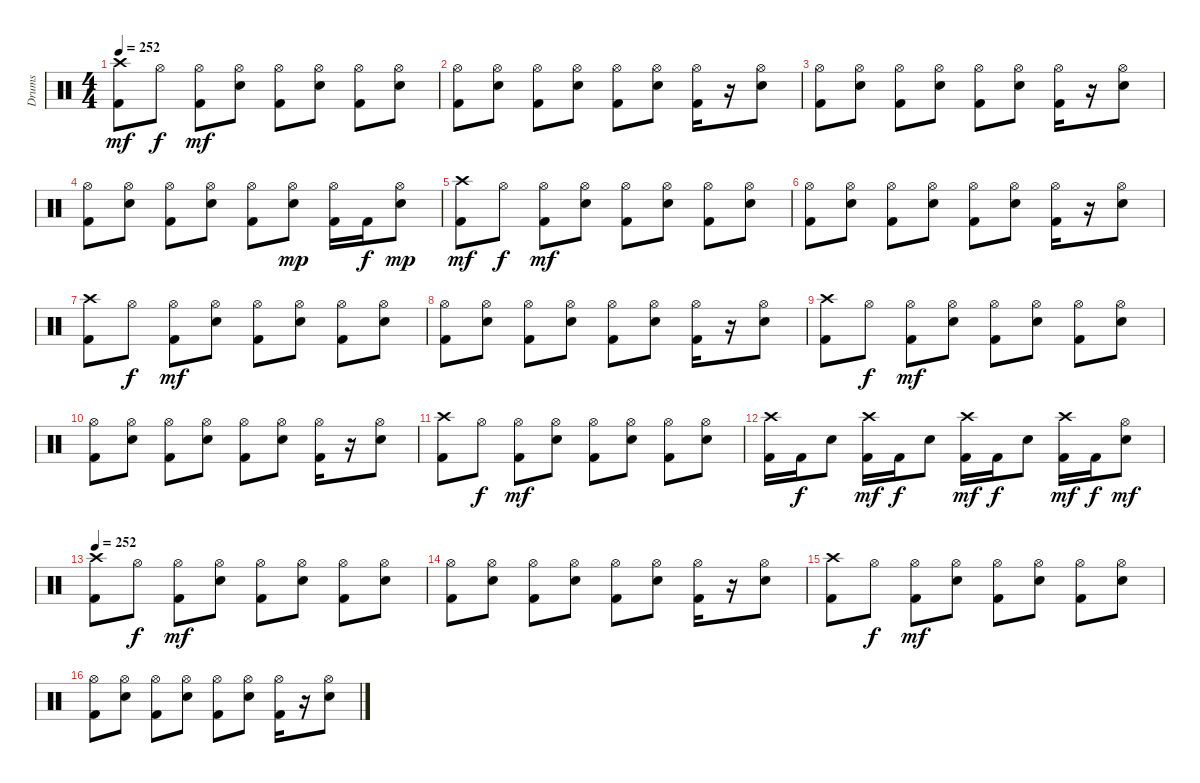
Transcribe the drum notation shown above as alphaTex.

\track ("Drums" "Drums") {instrument percussion}
\staff {score}
\articulation defaults
\ts (4 4)
\tempo 252
\clef neutral
\ks c
("Crash high (hit)" "Kick (hit) 2").8{dy mf} "Hi-Hat (open)".8{dy f} ("Hi-Hat (open)" "Kick (hit) 2").8{dy mf} ("Hi-Hat (open)" "Snare (hit) 2").8 ("Hi-Hat (open)" "Kick (hit) 2").8 ("Hi-Hat (open)" "Snare (hit) 2").8 ("Hi-Hat (open)" "Kick (hit) 2").8 ("Hi-Hat (open)" "Snare (hit) 2").8 |
("Hi-Hat (open)" "Kick (hit) 2").8 ("Hi-Hat (open)" "Snare (hit) 2").8 ("Hi-Hat (open)" "Kick (hit) 2").8 ("Hi-Hat (open)" "Snare (hit) 2").8 ("Hi-Hat (open)" "Kick (hit) 2").8 ("Hi-Hat (open)" "Snare (hit) 2").8 ("Hi-Hat (open)" "Kick (hit) 2").16 r.16 ("Hi-Hat (open)" "Snare (hit) 2").8 |
("Hi-Hat (open)" "Kick (hit) 2").8 ("Hi-Hat (open)" "Snare (hit) 2").8 ("Hi-Hat (open)" "Kick (hit) 2").8 ("Hi-Hat (open)" "Snare (hit) 2").8 ("Hi-Hat (open)" "Kick (hit) 2").8 ("Hi-Hat (open)" "Snare (hit) 2").8 ("Hi-Hat (open)" "Kick (hit) 2").16 r.16 ("Hi-Hat (open)" "Snare (hit) 2").8 |
("Hi-Hat (open)" "Kick (hit) 2").8 ("Hi-Hat (open)" "Snare (hit) 2").8 ("Hi-Hat (open)" "Kick (hit) 2").8 ("Hi-Hat (open)" "Snare (hit) 2").8 ("Hi-Hat (open)" "Kick (hit) 2").8 ("Hi-Hat (open)" "Snare (hit) 2").8{dy mp} ("Hi-Hat (open)" "Kick (hit) 2").16 "Kick (hit) 2".16{dy f} ("Hi-Hat (open)" "Snare (hit) 2").8{dy mp} |
("Crash high (hit)" "Kick (hit) 2").8{dy mf} "Hi-Hat (open)".8{dy f} ("Hi-Hat (open)" "Kick (hit) 2").8{dy mf} ("Hi-Hat (open)" "Snare (hit) 2").8 ("Hi-Hat (open)" "Kick (hit) 2").8 ("Hi-Hat (open)" "Snare (hit) 2").8 ("Hi-Hat (open)" "Kick (hit) 2").8 ("Hi-Hat (open)" "Snare (hit) 2").8 |
("Hi-Hat (open)" "Kick (hit) 2").8 ("Hi-Hat (open)" "Snare (hit) 2").8 ("Hi-Hat (open)" "Kick (hit) 2").8 ("Hi-Hat (open)" "Snare (hit) 2").8 ("Hi-Hat (open)" "Kick (hit) 2").8 ("Hi-Hat (open)" "Snare (hit) 2").8 ("Hi-Hat (open)" "Kick (hit) 2").16 r.16 ("Hi-Hat (open)" "Snare (hit) 2").8 |
("Crash high (hit)" "Kick (hit) 2").8 "Hi-Hat (open)".8{dy f} ("Hi-Hat (open)" "Kick (hit) 2").8{dy mf} ("Hi-Hat (open)" "Snare (hit) 2").8 ("Hi-Hat (open)" "Kick (hit) 2").8 ("Hi-Hat (open)" "Snare (hit) 2").8 ("Hi-Hat (open)" "Kick (hit) 2").8 ("Hi-Hat (open)" "Snare (hit) 2").8 |
("Hi-Hat (open)" "Kick (hit) 2").8 ("Hi-Hat (open)" "Snare (hit) 2").8 ("Hi-Hat (open)" "Kick (hit) 2").8 ("Hi-Hat (open)" "Snare (hit) 2").8 ("Hi-Hat (open)" "Kick (hit) 2").8 ("Hi-Hat (open)" "Snare (hit) 2").8 ("Hi-Hat (open)" "Kick (hit) 2").16 r.16 ("Hi-Hat (open)" "Snare (hit) 2").8 |
("Crash high (hit)" "Kick (hit) 2").8 "Hi-Hat (open)".8{dy f} ("Hi-Hat (open)" "Kick (hit) 2").8{dy mf} ("Hi-Hat (open)" "Snare (hit) 2").8 ("Hi-Hat (open)" "Kick (hit) 2").8 ("Hi-Hat (open)" "Snare (hit) 2").8 ("Hi-Hat (open)" "Kick (hit) 2").8 ("Hi-Hat (open)" "Snare (hit) 2").8 |
("Hi-Hat (open)" "Kick (hit) 2").8 ("Hi-Hat (open)" "Snare (hit) 2").8 ("Hi-Hat (open)" "Kick (hit) 2").8 ("Hi-Hat (open)" "Snare (hit) 2").8 ("Hi-Hat (open)" "Kick (hit) 2").8 ("Hi-Hat (open)" "Snare (hit) 2").8 ("Hi-Hat (open)" "Kick (hit) 2").16 r.16 ("Hi-Hat (open)" "Snare (hit) 2").8 |
("Crash high (hit)" "Kick (hit) 2").8 "Hi-Hat (open)".8{dy f} ("Hi-Hat (open)" "Kick (hit) 2").8{dy mf} ("Hi-Hat (open)" "Snare (hit) 2").8 ("Hi-Hat (open)" "Kick (hit) 2").8 ("Hi-Hat (open)" "Snare (hit) 2").8 ("Hi-Hat (open)" "Kick (hit) 2").8 ("Hi-Hat (open)" "Snare (hit) 2").8 |
("Crash high (hit)" "Kick (hit) 2").16 "Kick (hit) 2".16{dy f} "Snare (hit) 2".8 ("Crash high (hit)" "Kick (hit) 2").16{dy mf} "Kick (hit) 2".16{dy f} "Snare (hit) 2".8 ("Crash high (hit)" "Kick (hit) 2").16{dy mf} "Kick (hit) 2".16{dy f} "Snare (hit) 2".8 ("Crash high (hit)" "Kick (hit) 2").16{dy mf} "Kick (hit) 2".16{dy f} ("Hi-Hat (open)" "Snare (hit) 2").8{dy mf} |
\tempo 252
("Crash high (hit)" "Kick (hit) 2").8 "Hi-Hat (open)".8{dy f} ("Hi-Hat (open)" "Kick (hit) 2").8{dy mf} ("Hi-Hat (open)" "Snare (hit) 2").8 ("Hi-Hat (open)" "Kick (hit) 2").8 ("Hi-Hat (open)" "Snare (hit) 2").8 ("Hi-Hat (open)" "Kick (hit) 2").8 ("Hi-Hat (open)" "Snare (hit) 2").8 |
("Hi-Hat (open)" "Kick (hit) 2").8 ("Hi-Hat (open)" "Snare (hit) 2").8 ("Hi-Hat (open)" "Kick (hit) 2").8 ("Hi-Hat (open)" "Snare (hit) 2").8 ("Hi-Hat (open)" "Kick (hit) 2").8 ("Hi-Hat (open)" "Snare (hit) 2").8 ("Hi-Hat (open)" "Kick (hit) 2").16 r.16 ("Hi-Hat (open)" "Snare (hit) 2").8 |
("Crash high (hit)" "Kick (hit) 2").8 "Hi-Hat (open)".8{dy f} ("Hi-Hat (open)" "Kick (hit) 2").8{dy mf} ("Hi-Hat (open)" "Snare (hit) 2").8 ("Hi-Hat (open)" "Kick (hit) 2").8 ("Hi-Hat (open)" "Snare (hit) 2").8 ("Hi-Hat (open)" "Kick (hit) 2").8 ("Hi-Hat (open)" "Snare (hit) 2").8 |
("Hi-Hat (open)" "Kick (hit) 2").8 ("Hi-Hat (open)" "Snare (hit) 2").8 ("Hi-Hat (open)" "Kick (hit) 2").8 ("Hi-Hat (open)" "Snare (hit) 2").8 ("Hi-Hat (open)" "Kick (hit) 2").8 ("Hi-Hat (open)" "Snare (hit) 2").8 ("Hi-Hat (open)" "Kick (hit) 2").16 r.16 ("Hi-Hat (open)" "Snare (hit) 2").8
